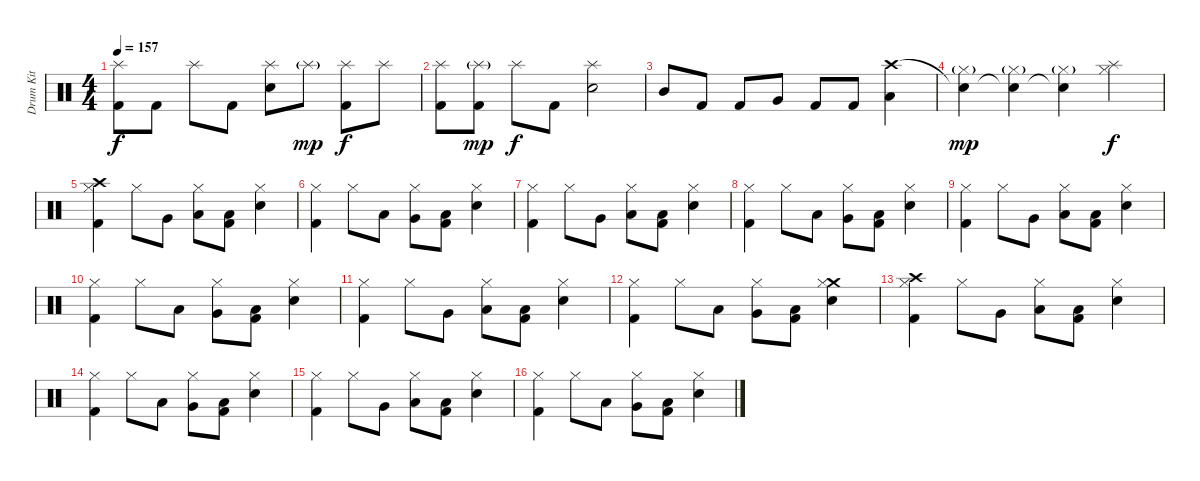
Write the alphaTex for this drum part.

\track ("Drum Kit" "Drum Kit") {instrument percussion}
\staff {score}
\articulation defaults
\ts (4 4)
\tempo 157
\clef neutral
\ks c
("Splash (hit)" "Kick (hit) 2").8{dy f} "Kick (hit) 2".8 "Splash (hit)".8 "Kick (hit) 2".8 ("Splash (hit)" "Snare (hit) 2").8 "Splash (hit)"{g}.8{dy mp} ("Splash (hit)" "Kick (hit) 2").8{dy f} "Splash (hit)".8 |
("Splash (hit)" "Kick (hit) 2").8 ("Splash (hit)"{g} "Kick (hit) 2").8{dy mp} "Splash (hit)".8{dy f} "Kick (hit) 2".8 ("Splash (hit)" "Snare (hit) 2").2 |
"Mid Tom (hit)".8 "Kick (hit) 2".8 "Kick (hit) 2".8 "Very Low Tom (hit)".8 "Kick (hit) 2".8 "Kick (hit) 2".8 ("Crash high (hit)" "Low Floor Tom (hit)").4 |
("Snare (hit)"{t} "Hi-Hat (closed)"{g}).4{dy mp} ("Snare (hit)"{t} "Hi-Hat (closed)"{g}).4 ("Snare (hit)"{t} "Hi-Hat (closed)"{g}).4 ("Splash (hit)" "Hi-Hat (closed)").4{dy f} |
("Crash high (hit)" "Hi-Hat (closed)" "Kick (hit) 2").4 "Hi-Hat (closed)".8 "Very Low Tom (hit)".8 ("Hi-Hat (closed)" "Low Floor Tom (hit)").8 ("Kick (hit) 2" "Low Floor Tom (hit)").8 ("Hi-Hat (closed)" "Snare (hit) 2").4 |
("Hi-Hat (closed)" "Kick (hit) 2").4 "Hi-Hat (closed)".8 "Low Tom (hit)".8 ("Hi-Hat (closed)" "Very Low Tom (hit)").8 ("Kick (hit) 2" "Low Floor Tom (hit)").8 ("Hi-Hat (closed)" "Snare (hit) 2").4 |
("Hi-Hat (closed)" "Kick (hit) 2").4 "Hi-Hat (closed)".8 "Very Low Tom (hit)".8 ("Hi-Hat (closed)" "Low Floor Tom (hit)").8 ("Kick (hit) 2" "Low Floor Tom (hit)").8 ("Hi-Hat (closed)" "Snare (hit) 2").4 |
("Hi-Hat (closed)" "Kick (hit) 2").4 "Hi-Hat (closed)".8 "Low Tom (hit)".8 ("Hi-Hat (closed)" "Very Low Tom (hit)").8 ("Kick (hit) 2" "Low Floor Tom (hit)").8 ("Hi-Hat (closed)" "Snare (hit) 2").4 |
("Hi-Hat (closed)" "Kick (hit) 2").4 "Hi-Hat (closed)".8 "Very Low Tom (hit)".8 ("Hi-Hat (closed)" "Low Floor Tom (hit)").8 ("Kick (hit) 2" "Low Floor Tom (hit)").8 ("Hi-Hat (closed)" "Snare (hit) 2").4 |
("Hi-Hat (closed)" "Kick (hit) 2").4 "Hi-Hat (closed)".8 "Low Tom (hit)".8 ("Hi-Hat (closed)" "Very Low Tom (hit)").8 ("Kick (hit) 2" "Low Floor Tom (hit)").8 ("Hi-Hat (closed)" "Snare (hit) 2").4 |
("Hi-Hat (closed)" "Kick (hit) 2").4 "Hi-Hat (closed)".8 "Very Low Tom (hit)".8 ("Hi-Hat (closed)" "Low Floor Tom (hit)").8 ("Kick (hit) 2" "Low Floor Tom (hit)").8 ("Hi-Hat (closed)" "Snare (hit) 2").4 |
("Hi-Hat (closed)" "Kick (hit) 2").4 "Hi-Hat (closed)".8 "Low Tom (hit)".8 ("Hi-Hat (closed)" "Very Low Tom (hit)").8 ("Kick (hit) 2" "Low Floor Tom (hit)").8 ("Crash medium (hit)" "Hi-Hat (closed)" "Snare (hit) 2").4 |
("Crash high (hit)" "Hi-Hat (closed)" "Kick (hit) 2").4 "Hi-Hat (closed)".8 "Very Low Tom (hit)".8 ("Hi-Hat (closed)" "Low Floor Tom (hit)").8 ("Kick (hit) 2" "Low Floor Tom (hit)").8 ("Hi-Hat (closed)" "Snare (hit) 2").4 |
("Hi-Hat (closed)" "Kick (hit) 2").4 "Hi-Hat (closed)".8 "Low Tom (hit)".8 ("Hi-Hat (closed)" "Very Low Tom (hit)").8 ("Kick (hit) 2" "Low Floor Tom (hit)").8 ("Hi-Hat (closed)" "Snare (hit) 2").4 |
("Hi-Hat (closed)" "Kick (hit) 2").4 "Hi-Hat (closed)".8 "Very Low Tom (hit)".8 ("Hi-Hat (closed)" "Low Floor Tom (hit)").8 ("Kick (hit) 2" "Low Floor Tom (hit)").8 ("Hi-Hat (closed)" "Snare (hit) 2").4 |
("Hi-Hat (closed)" "Kick (hit) 2").4 "Hi-Hat (closed)".8 "Low Tom (hit)".8 ("Hi-Hat (closed)" "Very Low Tom (hit)").8 ("Kick (hit) 2" "Low Floor Tom (hit)").8 ("Hi-Hat (closed)" "Snare (hit) 2").4
